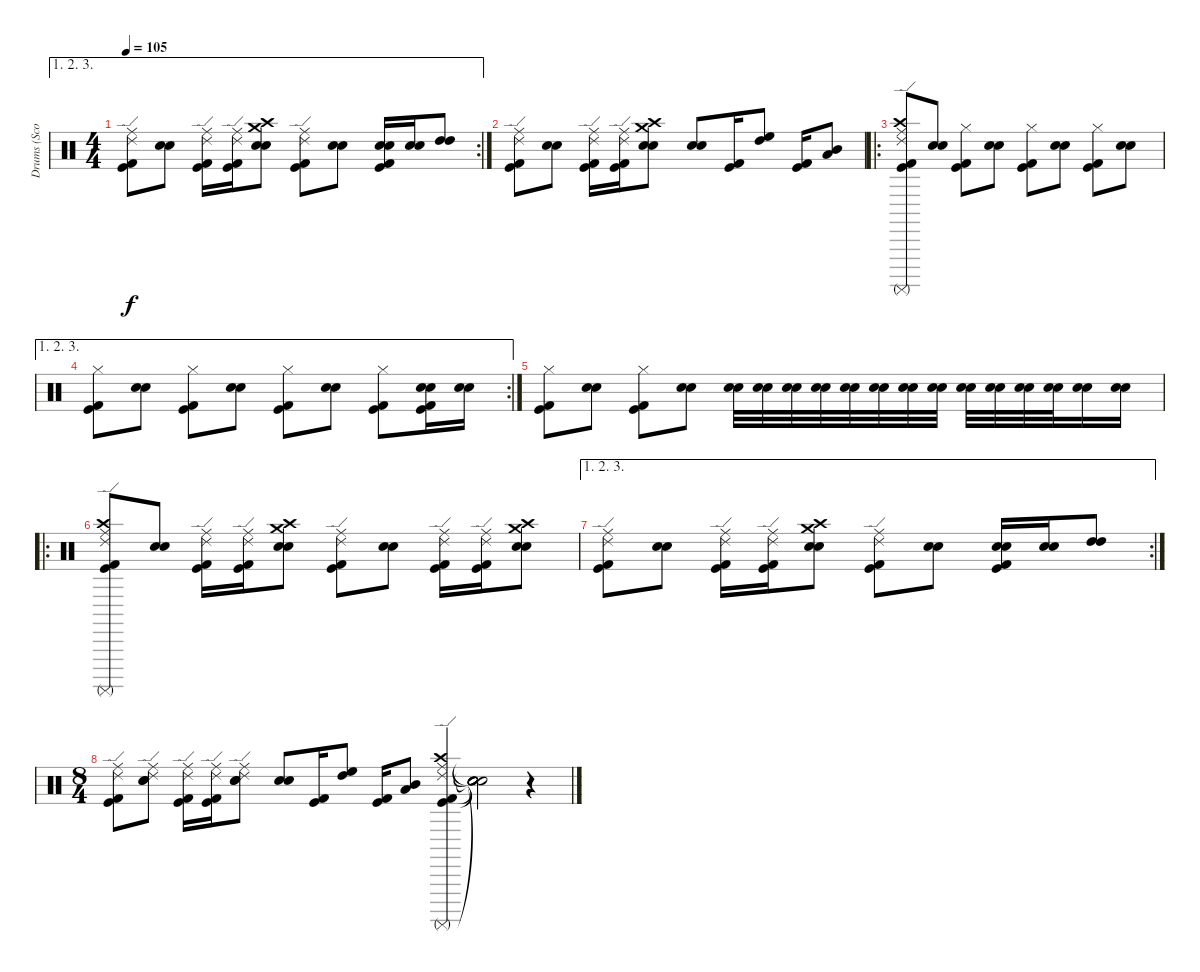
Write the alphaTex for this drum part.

\track ("Drums (Scott Abels)" "Drums (Sco") {instrument percussion}
\staff {score}
\articulation defaults
\ae (1 2 3)
\rc 2
\ts (4 4)
\tempo 105
\clef neutral
\ks c
("Ride (middle)" "Ride (edge) 2" "Kick (hit)" "Kick (hit) 2").8{dy f} ("Electric Snare (hit)" "Snare (hit) 2").8 ("Ride (middle)" "Ride (edge) 2" "Kick (hit)" "Kick (hit) 2").16 ("Ride (middle)" "Ride (edge) 2" "Kick (hit)" "Kick (hit) 2").16 ("Crash high (hit)" "Crash medium (hit)" "Electric Snare (hit)" "Snare (hit) 2").8 ("Ride (middle)" "Ride (edge) 2" "Kick (hit)" "Kick (hit) 2").8 ("Electric Snare (hit)" "Snare (hit) 2").8 ("Electric Snare (hit)" "Snare (hit) 2" "Kick (hit)" "Kick (hit) 2").16 ("Electric Snare (hit)" "Snare (hit) 2").16 ("High Tom (hit)" "High Tom (hit)").8 |
("Ride (middle)" "Ride (edge) 2" "Kick (hit)" "Kick (hit) 2").8 ("Electric Snare (hit)" "Snare (hit) 2").8 ("Ride (middle)" "Ride (edge) 2" "Kick (hit)" "Kick (hit) 2").16 ("Ride (middle)" "Ride (edge) 2" "Kick (hit)" "Kick (hit) 2").16 ("Crash high (hit)" "Crash medium (hit)" "Electric Snare (hit)" "Snare (hit) 2").8 ("Electric Snare (hit)" "Snare (hit) 2").8 ("Kick (hit)" "Kick (hit) 2").16 ("High Tom (hit)" "High Floor Tom (hit)").8 ("Kick (hit)" "Kick (hit) 2").16 ("Mid Tom (hit)" "Low Tom (hit)").8 |
\ro
("Ride (edge) 2" "Ride (middle)" "Crash high (hit)" "Surdo (mute)" "Kick (hit)" "Kick (hit) 2").8 ("Snare (hit) 2" "Electric Snare (hit)").8 ("Hi-Hat (closed)" "Kick (hit)" "Kick (hit) 2").8 ("Snare (hit) 2" "Electric Snare (hit)").8 ("Hi-Hat (closed)" "Kick (hit)" "Kick (hit) 2").8 ("Snare (hit) 2" "Electric Snare (hit)").8 ("Hi-Hat (closed)" "Kick (hit)" "Kick (hit) 2").8 ("Snare (hit) 2" "Electric Snare (hit)").8 |
\ae (1 2 3)
\rc 2
("Hi-Hat (closed)" "Kick (hit)" "Kick (hit) 2").8 ("Snare (hit) 2" "Electric Snare (hit)").8 ("Hi-Hat (closed)" "Kick (hit)" "Kick (hit) 2").8 ("Snare (hit) 2" "Electric Snare (hit)").8 ("Hi-Hat (closed)" "Kick (hit)" "Kick (hit) 2").8 ("Snare (hit) 2" "Electric Snare (hit)").8 ("Hi-Hat (closed)" "Kick (hit)" "Kick (hit) 2").8 ("Snare (hit) 2" "Electric Snare (hit)" "Kick (hit)" "Kick (hit) 2").16 ("Snare (hit) 2" "Electric Snare (hit)").16 |
("Hi-Hat (closed)" "Kick (hit)" "Kick (hit) 2").8 ("Snare (hit) 2" "Electric Snare (hit)").8 ("Hi-Hat (closed)" "Kick (hit)" "Kick (hit) 2").8 ("Snare (hit) 2" "Electric Snare (hit)").8 ("Snare (hit) 2" "Electric Snare (hit)").32 ("Snare (hit) 2" "Electric Snare (hit)").32 ("Snare (hit) 2" "Electric Snare (hit)").32 ("Snare (hit) 2" "Electric Snare (hit)").32 ("Snare (hit) 2" "Electric Snare (hit)").32 ("Snare (hit) 2" "Electric Snare (hit)").32 ("Snare (hit) 2" "Electric Snare (hit)").32 ("Snare (hit) 2" "Electric Snare (hit)").32 ("Snare (hit) 2" "Electric Snare (hit)").32 ("Snare (hit) 2" "Electric Snare (hit)").32 ("Snare (hit) 2" "Electric Snare (hit)").32 ("Snare (hit) 2" "Electric Snare (hit)").32 ("Snare (hit) 2" "Electric Snare (hit)").16 ("Snare (hit) 2" "Electric Snare (hit)").16 |
\ro
("Ride (middle)" "Ride (edge) 2" "Crash high (hit)" "Surdo (mute)" "Kick (hit)" "Kick (hit) 2").8 ("Electric Snare (hit)" "Snare (hit) 2").8 ("Ride (middle)" "Ride (edge) 2" "Kick (hit)" "Kick (hit) 2").16 ("Ride (middle)" "Ride (edge) 2" "Kick (hit)" "Kick (hit) 2").16 ("Crash high (hit)" "Crash medium (hit)" "Electric Snare (hit)" "Snare (hit) 2").8 ("Ride (middle)" "Ride (edge) 2" "Kick (hit)" "Kick (hit) 2").8 ("Electric Snare (hit)" "Snare (hit) 2").8 ("Ride (middle)" "Ride (edge) 2" "Kick (hit)" "Kick (hit) 2").16 ("Ride (middle)" "Ride (edge) 2" "Kick (hit)" "Kick (hit) 2").16 ("Crash high (hit)" "Crash medium (hit)" "Electric Snare (hit)" "Snare (hit) 2").8 |
\ae (1 2 3)
\rc 2
("Ride (middle)" "Ride (edge) 2" "Kick (hit)" "Kick (hit) 2").8 ("Electric Snare (hit)" "Snare (hit) 2").8 ("Ride (middle)" "Ride (edge) 2" "Kick (hit)" "Kick (hit) 2").16 ("Ride (middle)" "Ride (edge) 2" "Kick (hit)" "Kick (hit) 2").16 ("Crash high (hit)" "Crash medium (hit)" "Electric Snare (hit)" "Snare (hit) 2").8 ("Ride (middle)" "Ride (edge) 2" "Kick (hit)" "Kick (hit) 2").8 ("Electric Snare (hit)" "Snare (hit) 2").8 ("Electric Snare (hit)" "Snare (hit) 2" "Kick (hit)" "Kick (hit) 2").16 ("Electric Snare (hit)" "Snare (hit) 2").16 ("High Tom (hit)" "High Tom (hit)").8 |
\ts (8 4)
("Ride (middle)" "Ride (edge) 2" "Kick (hit)" "Kick (hit) 2").8 ("Ride (middle)" "Ride (edge) 2" "Snare (hit) 2" "Electric Snare (hit)").8 ("Ride (middle)" "Ride (edge) 2" "Kick (hit)" "Kick (hit) 2").16 ("Ride (middle)" "Ride (edge) 2" "Kick (hit)" "Kick (hit) 2").16 ("Ride (middle)" "Ride (edge) 2" "Snare (hit) 2" "Electric Snare (hit)").8 ("Snare (hit) 2" "Electric Snare (hit)").8 ("Kick (hit)" "Kick (hit) 2").16 ("High Tom (hit)" "High Floor Tom (hit)").8 ("Kick (hit)" "Kick (hit) 2").16 ("Mid Tom (hit)" "Low Tom (hit)").8 ("Surdo (mute)" "Crash high (hit)" "Ride (middle)" "Ride (edge) 2" "Kick (hit)" "Kick (hit) 2").4 ("Snare (hit)"{t} "Snare (hit)"{t} "Snare (hit)"{t} "Snare (hit)"{t} "Snare (hit)"{t} "Snare (hit)"{t}).2 r.4
